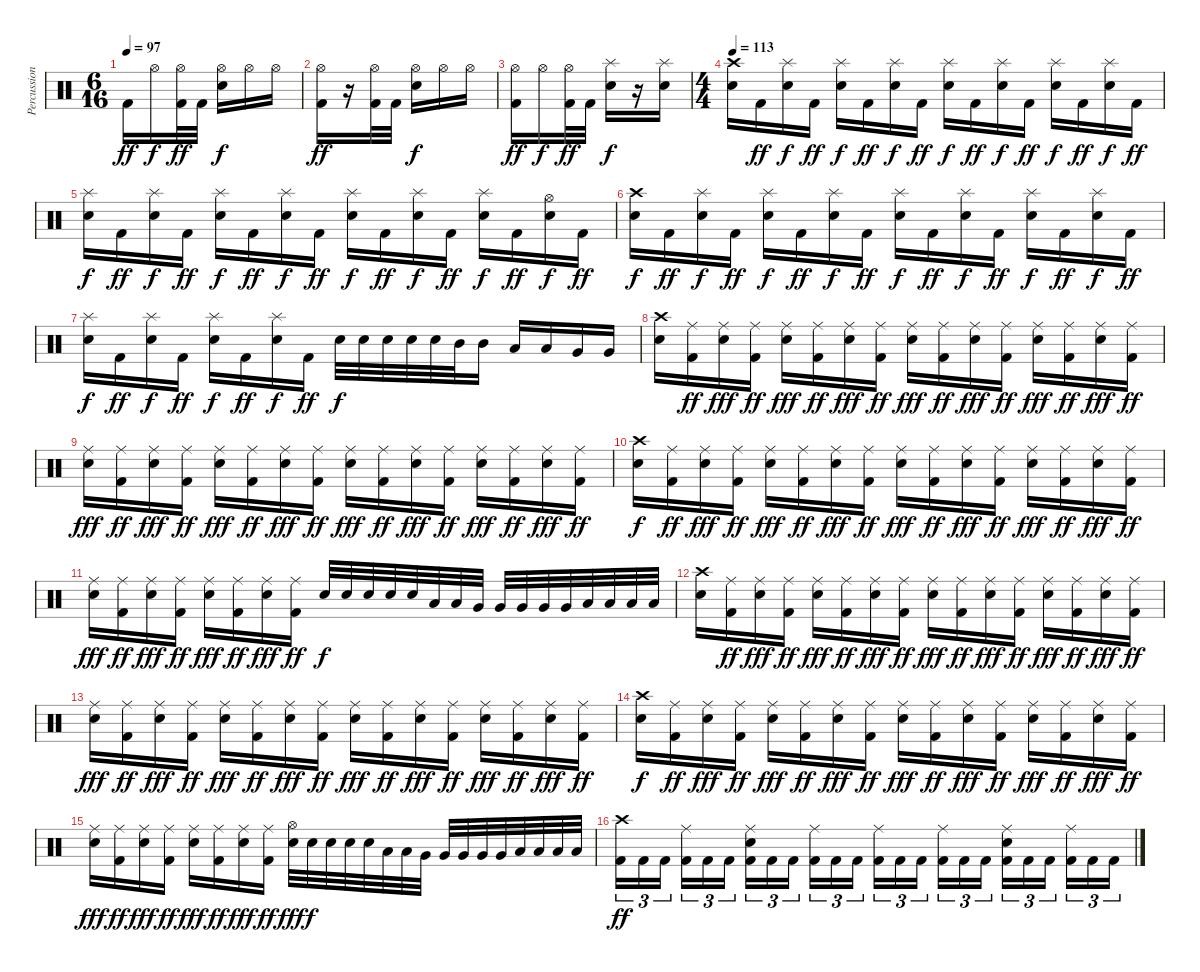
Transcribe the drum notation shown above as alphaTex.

\track ("Percussion" "Percussion") {instrument percussion}
\staff {score}
\articulation defaults
\ts (6 16)
\tempo 97
\clef neutral
\ks c "Kick (hit) 2".16{dy ff} "Hi-Hat (open)".16{dy f}
("Hi-Hat (open)" "Kick (hit) 2").32{dy ff} "Kick (hit) 2".32 ("Hi-Hat (open)" "Electric Snare (hit)").16{dy f} "Hi-Hat (open)".16 "Hi-Hat (open)".16 |
("Hi-Hat (open)" "Kick (hit) 2").16{dy ff} r.16 ("Hi-Hat (open)" "Kick (hit) 2").32 "Kick (hit) 2".32 ("Hi-Hat (open)" "Electric Snare (hit)").16{dy f} "Hi-Hat (open)".16 "Hi-Hat (open)".16 |
("Hi-Hat (open)" "Kick (hit) 2").16{dy ff} "Hi-Hat (open)".16{dy f} ("Hi-Hat (open)" "Kick (hit) 2").32{dy ff} "Kick (hit) 2".32 ("Splash (hit)" "Electric Snare (hit)").16{dy f} r.16 ("Splash (hit)" "Electric Snare (hit)").16 |
\ts (4 4)
\tempo 113
("Crash high (hit)" "Electric Snare (hit)").16 "Kick (hit) 2".16{dy ff} ("Splash (hit)" "Electric Snare (hit)").16{dy f} "Kick (hit) 2".16{dy ff} ("Splash (hit)" "Electric Snare (hit)").16{dy f} "Kick (hit) 2".16{dy ff} ("Splash (hit)" "Electric Snare (hit)").16{dy f} "Kick (hit) 2".16{dy ff} ("Splash (hit)" "Electric Snare (hit)").16{dy f} "Kick (hit) 2".16{dy ff} ("Splash (hit)" "Electric Snare (hit)").16{dy f} "Kick (hit) 2".16{dy ff} ("Splash (hit)" "Electric Snare (hit)").16{dy f} "Kick (hit) 2".16{dy ff} ("Splash (hit)" "Electric Snare (hit)").16{dy f} "Kick (hit) 2".16{dy ff} |
("Splash (hit)" "Electric Snare (hit)").16{dy f} "Kick (hit) 2".16{dy ff} ("Splash (hit)" "Electric Snare (hit)").16{dy f} "Kick (hit) 2".16{dy ff} ("Splash (hit)" "Electric Snare (hit)").16{dy f} "Kick (hit) 2".16{dy ff} ("Splash (hit)" "Electric Snare (hit)").16{dy f} "Kick (hit) 2".16{dy ff} ("Splash (hit)" "Electric Snare (hit)").16{dy f} "Kick (hit) 2".16{dy ff} ("Splash (hit)" "Electric Snare (hit)").16{dy f} "Kick (hit) 2".16{dy ff} ("Splash (hit)" "Electric Snare (hit)").16{dy f} "Kick (hit) 2".16{dy ff} ("Hi-Hat (open)" "Electric Snare (hit)").16{dy f} "Kick (hit) 2".16{dy ff} |
("Crash high (hit)" "Electric Snare (hit)").16{dy f} "Kick (hit) 2".16{dy ff} ("Splash (hit)" "Electric Snare (hit)").16{dy f} "Kick (hit) 2".16{dy ff} ("Splash (hit)" "Electric Snare (hit)").16{dy f} "Kick (hit) 2".16{dy ff} ("Splash (hit)" "Electric Snare (hit)").16{dy f} "Kick (hit) 2".16{dy ff} ("Splash (hit)" "Electric Snare (hit)").16{dy f} "Kick (hit) 2".16{dy ff} ("Splash (hit)" "Electric Snare (hit)").16{dy f} "Kick (hit) 2".16{dy ff} ("Splash (hit)" "Electric Snare (hit)").16{dy f} "Kick (hit) 2".16{dy ff} ("Splash (hit)" "Electric Snare (hit)").16{dy f} "Kick (hit) 2".16{dy ff} |
("Splash (hit)" "Electric Snare (hit)").16{dy f} "Kick (hit) 2".16{dy ff} ("Splash (hit)" "Electric Snare (hit)").16{dy f} "Kick (hit) 2".16{dy ff} ("Splash (hit)" "Electric Snare (hit)").16{dy f} "Kick (hit) 2".16{dy ff} ("Splash (hit)" "Electric Snare (hit)").16{dy f} "Kick (hit) 2".16{dy ff} "Electric Snare (hit)".32{dy f} "Electric Snare (hit)".32 "Electric Snare (hit)".32 "Electric Snare (hit)".32 "Electric Snare (hit)".32 "Mid Tom (hit)".32 "Mid Tom (hit)".16 "Low Tom (hit)".16 "Low Tom (hit)".16 "Very Low Tom (hit)".16 "Very Low Tom (hit)".16 |
("Crash high (hit)" "Electric Snare (hit)").16 ("Ride (middle)" "Kick (hit) 2").16{dy ff} ("Ride (middle)" "Electric Snare (hit)").16{dy fff} ("Ride (middle)" "Kick (hit) 2").16{dy ff} ("Ride (middle)" "Electric Snare (hit)").16{dy fff} ("Ride (middle)" "Kick (hit) 2").16{dy ff} ("Ride (middle)" "Electric Snare (hit)").16{dy fff} ("Ride (middle)" "Kick (hit) 2").16{dy ff} ("Ride (middle)" "Electric Snare (hit)").16{dy fff} ("Ride (middle)" "Kick (hit) 2").16{dy ff} ("Ride (middle)" "Electric Snare (hit)").16{dy fff} ("Ride (middle)" "Kick (hit) 2").16{dy ff} ("Ride (middle)" "Electric Snare (hit)").16{dy fff} ("Ride (middle)" "Kick (hit) 2").16{dy ff} ("Ride (middle)" "Electric Snare (hit)").16{dy fff} ("Ride (middle)" "Kick (hit) 2").16{dy ff} |
("Ride (middle)" "Electric Snare (hit)").16{dy fff} ("Ride (middle)" "Kick (hit) 2").16{dy ff} ("Ride (middle)" "Electric Snare (hit)").16{dy fff} ("Ride (middle)" "Kick (hit) 2").16{dy ff} ("Ride (middle)" "Electric Snare (hit)").16{dy fff} ("Ride (middle)" "Kick (hit) 2").16{dy ff} ("Ride (middle)" "Electric Snare (hit)").16{dy fff} ("Ride (middle)" "Kick (hit) 2").16{dy ff} ("Ride (middle)" "Electric Snare (hit)").16{dy fff} ("Ride (middle)" "Kick (hit) 2").16{dy ff} ("Ride (middle)" "Electric Snare (hit)").16{dy fff} ("Ride (middle)" "Kick (hit) 2").16{dy ff} ("Ride (middle)" "Electric Snare (hit)").16{dy fff} ("Ride (middle)" "Kick (hit) 2").16{dy ff} ("Ride (middle)" "Electric Snare (hit)").16{dy fff} ("Ride (middle)" "Kick (hit) 2").16{dy ff} |
("Crash high (hit)" "Electric Snare (hit)").16{dy f} ("Ride (middle)" "Kick (hit) 2").16{dy ff} ("Ride (middle)" "Electric Snare (hit)").16{dy fff} ("Ride (middle)" "Kick (hit) 2").16{dy ff} ("Ride (middle)" "Electric Snare (hit)").16{dy fff} ("Ride (middle)" "Kick (hit) 2").16{dy ff} ("Ride (middle)" "Electric Snare (hit)").16{dy fff} ("Ride (middle)" "Kick (hit) 2").16{dy ff} ("Ride (middle)" "Electric Snare (hit)").16{dy fff} ("Ride (middle)" "Kick (hit) 2").16{dy ff} ("Ride (middle)" "Electric Snare (hit)").16{dy fff} ("Ride (middle)" "Kick (hit) 2").16{dy ff} ("Ride (middle)" "Electric Snare (hit)").16{dy fff} ("Ride (middle)" "Kick (hit) 2").16{dy ff} ("Ride (middle)" "Electric Snare (hit)").16{dy fff} ("Ride (middle)" "Kick (hit) 2").16{dy ff} |
("Ride (middle)" "Electric Snare (hit)").16{dy fff} ("Ride (middle)" "Kick (hit) 2").16{dy ff} ("Ride (middle)" "Electric Snare (hit)").16{dy fff} ("Ride (middle)" "Kick (hit) 2").16{dy ff} ("Ride (middle)" "Electric Snare (hit)").16{dy fff} ("Ride (middle)" "Kick (hit) 2").16{dy ff} ("Ride (middle)" "Electric Snare (hit)").16{dy fff} ("Ride (middle)" "Kick (hit) 2").16{dy ff} "Electric Snare (hit)".32{dy f} "Electric Snare (hit)".32 "Electric Snare (hit)".32 "Electric Snare (hit)".32 "Electric Snare (hit)".32 "Low Tom (hit)".32 "Low Tom (hit)".32 "Very Low Tom (hit)".32 "Very Low Tom (hit)".32 "Very Low Tom (hit)".32 "Very Low Tom (hit)".32 "Very Low Tom (hit)".32 "Low Floor Tom (hit)".32 "Low Floor Tom (hit)".32 "Low Floor Tom (hit)".32 "Low Floor Tom (hit)".32 |
("Crash high (hit)" "Electric Snare (hit)").16 ("Ride (middle)" "Kick (hit) 2").16{dy ff} ("Ride (middle)" "Electric Snare (hit)").16{dy fff} ("Ride (middle)" "Kick (hit) 2").16{dy ff} ("Ride (middle)" "Electric Snare (hit)").16{dy fff} ("Ride (middle)" "Kick (hit) 2").16{dy ff} ("Ride (middle)" "Electric Snare (hit)").16{dy fff} ("Ride (middle)" "Kick (hit) 2").16{dy ff} ("Ride (middle)" "Electric Snare (hit)").16{dy fff} ("Ride (middle)" "Kick (hit) 2").16{dy ff} ("Ride (middle)" "Electric Snare (hit)").16{dy fff} ("Ride (middle)" "Kick (hit) 2").16{dy ff} ("Ride (middle)" "Electric Snare (hit)").16{dy fff} ("Ride (middle)" "Kick (hit) 2").16{dy ff} ("Ride (middle)" "Electric Snare (hit)").16{dy fff} ("Ride (middle)" "Kick (hit) 2").16{dy ff} |
("Ride (middle)" "Electric Snare (hit)").16{dy fff} ("Ride (middle)" "Kick (hit) 2").16{dy ff} ("Ride (middle)" "Electric Snare (hit)").16{dy fff} ("Ride (middle)" "Kick (hit) 2").16{dy ff} ("Ride (middle)" "Electric Snare (hit)").16{dy fff} ("Ride (middle)" "Kick (hit) 2").16{dy ff} ("Ride (middle)" "Electric Snare (hit)").16{dy fff} ("Ride (middle)" "Kick (hit) 2").16{dy ff} ("Ride (middle)" "Electric Snare (hit)").16{dy fff} ("Ride (middle)" "Kick (hit) 2").16{dy ff} ("Ride (middle)" "Electric Snare (hit)").16{dy fff} ("Ride (middle)" "Kick (hit) 2").16{dy ff} ("Ride (middle)" "Electric Snare (hit)").16{dy fff} ("Ride (middle)" "Kick (hit) 2").16{dy ff} ("Ride (middle)" "Electric Snare (hit)").16{dy fff} ("Ride (middle)" "Kick (hit) 2").16{dy ff} |
("Crash high (hit)" "Electric Snare (hit)").16{dy f} ("Ride (middle)" "Kick (hit) 2").16{dy ff} ("Ride (middle)" "Electric Snare (hit)").16{dy fff} ("Ride (middle)" "Kick (hit) 2").16{dy ff} ("Ride (middle)" "Electric Snare (hit)").16{dy fff} ("Ride (middle)" "Kick (hit) 2").16{dy ff} ("Ride (middle)" "Electric Snare (hit)").16{dy fff} ("Ride (middle)" "Kick (hit) 2").16{dy ff} ("Ride (middle)" "Electric Snare (hit)").16{dy fff} ("Ride (middle)" "Kick (hit) 2").16{dy ff} ("Ride (middle)" "Electric Snare (hit)").16{dy fff} ("Ride (middle)" "Kick (hit) 2").16{dy ff} ("Ride (middle)" "Electric Snare (hit)").16{dy fff} ("Ride (middle)" "Kick (hit) 2").16{dy ff} ("Ride (middle)" "Electric Snare (hit)").16{dy fff} ("Ride (middle)" "Kick (hit) 2").16{dy ff} |
("Ride (middle)" "Electric Snare (hit)").16{dy fff} ("Ride (middle)" "Kick (hit) 2").16{dy ff} ("Ride (middle)" "Electric Snare (hit)").16{dy fff} ("Ride (middle)" "Kick (hit) 2").16{dy ff} ("Ride (middle)" "Electric Snare (hit)").16{dy fff} ("Ride (middle)" "Kick (hit) 2").16{dy ff} ("Ride (middle)" "Electric Snare (hit)").16{dy fff} ("Ride (middle)" "Kick (hit) 2").16{dy ff} ("Hi-Hat (open)" "Electric Snare (hit)").32{dy fff} "Electric Snare (hit)".32{dy f} "Electric Snare (hit)".32 "Electric Snare (hit)".32 "Electric Snare (hit)".32 "Low Tom (hit)".32 "Low Tom (hit)".32 "Very Low Tom (hit)".32 "Very Low Tom (hit)".32 "Very Low Tom (hit)".32 "Very Low Tom (hit)".32 "Very Low Tom (hit)".32 "Low Floor Tom (hit)".32 "Low Floor Tom (hit)".32 "Low Floor Tom (hit)".32 "Low Floor Tom (hit)".32 |
("Crash high (hit)" "Kick (hit) 2").16{tu (3 2) dy ff} "Kick (hit) 2".16{tu (3 2)} "Kick (hit) 2".16{tu (3 2)} ("Ride (middle)" "Kick (hit) 2").16{tu (3 2)} "Kick (hit) 2".16{tu (3 2)} "Kick (hit) 2".16{tu (3 2)} ("Ride (middle)" "Electric Snare (hit)" "Kick (hit) 2").16{tu (3 2)} "Kick (hit) 2".16{tu (3 2)} "Kick (hit) 2".16{tu (3 2)} ("Ride (middle)" "Kick (hit) 2").16{tu (3 2)} "Kick (hit) 2".16{tu (3 2)} "Kick (hit) 2".16{tu (3 2)} ("Ride (middle)" "Kick (hit) 2").16{tu (3 2)} "Kick (hit) 2".16{tu (3 2)} "Kick (hit) 2".16{tu (3 2)} ("Ride (middle)" "Kick (hit) 2").16{tu (3 2)} "Kick (hit) 2".16{tu (3 2)} "Kick (hit) 2".16{tu (3 2)} ("Ride (middle)" "Electric Snare (hit)" "Kick (hit) 2").16{tu (3 2)} "Kick (hit) 2".16{tu (3 2)} "Kick (hit) 2".16{tu (3 2)} ("Ride (middle)" "Kick (hit) 2").16{tu (3 2)} "Kick (hit) 2".16{tu (3 2)} "Kick (hit) 2".16{tu (3 2)}
